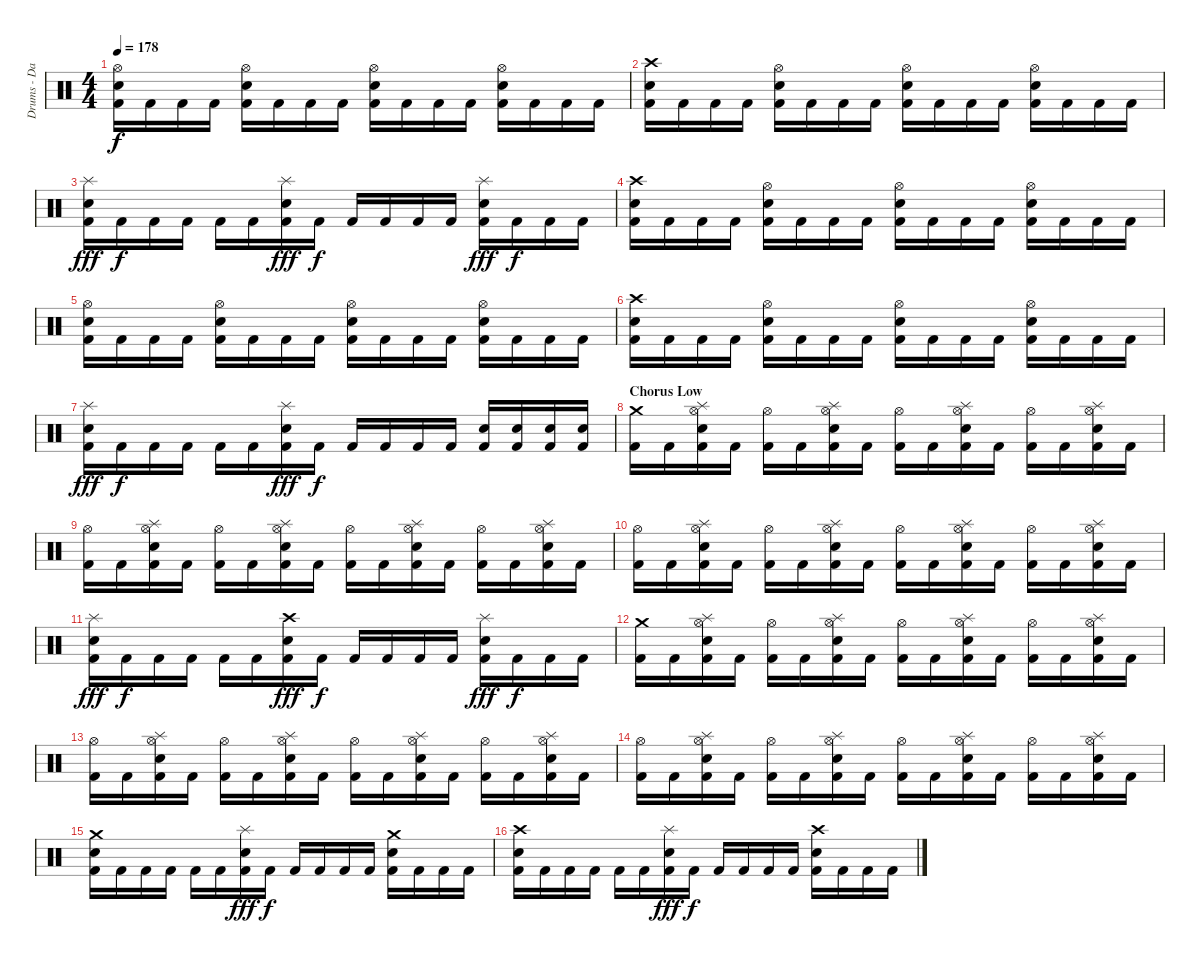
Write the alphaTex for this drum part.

\track ("Drums - Daniel Zimmermann" "Drums - Da") {instrument percussion}
\staff {score}
\articulation defaults
\ts (4 4)
\tempo 178
\clef neutral
\ks c
("Kick (hit) 2" "Electric Snare (hit)" "Hi-Hat (open)").16{dy f} "Kick (hit) 2".16 "Kick (hit) 2".16 "Kick (hit) 2".16 ("Kick (hit) 2" "Electric Snare (hit)" "Hi-Hat (open)").16 "Kick (hit) 2".16 "Kick (hit) 2".16 "Kick (hit) 2".16 ("Kick (hit) 2" "Electric Snare (hit)" "Hi-Hat (open)").16 "Kick (hit) 2".16 "Kick (hit) 2".16 "Kick (hit) 2".16 ("Kick (hit) 2" "Electric Snare (hit)" "Hi-Hat (open)").16 "Kick (hit) 2".16 "Kick (hit) 2".16 "Kick (hit) 2".16 |
("Kick (hit) 2" "Electric Snare (hit)" "Crash high (hit)").16 "Kick (hit) 2".16 "Kick (hit) 2".16 "Kick (hit) 2".16 ("Kick (hit) 2" "Electric Snare (hit)" "Hi-Hat (open)").16 "Kick (hit) 2".16 "Kick (hit) 2".16 "Kick (hit) 2".16 ("Kick (hit) 2" "Electric Snare (hit)" "Hi-Hat (open)").16 "Kick (hit) 2".16 "Kick (hit) 2".16 "Kick (hit) 2".16 ("Kick (hit) 2" "Electric Snare (hit)" "Hi-Hat (open)").16 "Kick (hit) 2".16 "Kick (hit) 2".16 "Kick (hit) 2".16 |
("Kick (hit) 2" "Electric Snare (hit)" "Splash (hit)").16{dy fff} "Kick (hit) 2".16{dy f} "Kick (hit) 2".16 "Kick (hit) 2".16 "Kick (hit) 2".16 "Kick (hit) 2".16 ("Kick (hit) 2" "Electric Snare (hit)" "Splash (hit)").16{dy fff} "Kick (hit) 2".16{dy f} "Kick (hit) 2".16 "Kick (hit) 2".16 "Kick (hit) 2".16 "Kick (hit) 2".16 ("Kick (hit) 2" "Electric Snare (hit)" "Splash (hit)").16{dy fff} "Kick (hit) 2".16{dy f} "Kick (hit) 2".16 "Kick (hit) 2".16 |
("Kick (hit) 2" "Electric Snare (hit)" "Crash high (hit)").16 "Kick (hit) 2".16 "Kick (hit) 2".16 "Kick (hit) 2".16 ("Kick (hit) 2" "Electric Snare (hit)" "Hi-Hat (open)").16 "Kick (hit) 2".16 "Kick (hit) 2".16 "Kick (hit) 2".16 ("Kick (hit) 2" "Electric Snare (hit)" "Hi-Hat (open)").16 "Kick (hit) 2".16 "Kick (hit) 2".16 "Kick (hit) 2".16 ("Kick (hit) 2" "Electric Snare (hit)" "Hi-Hat (open)").16 "Kick (hit) 2".16 "Kick (hit) 2".16 "Kick (hit) 2".16 |
("Kick (hit) 2" "Electric Snare (hit)" "Hi-Hat (open)").16 "Kick (hit) 2".16 "Kick (hit) 2".16 "Kick (hit) 2".16 ("Kick (hit) 2" "Electric Snare (hit)" "Hi-Hat (open)").16 "Kick (hit) 2".16 "Kick (hit) 2".16 "Kick (hit) 2".16 ("Kick (hit) 2" "Electric Snare (hit)" "Hi-Hat (open)").16 "Kick (hit) 2".16 "Kick (hit) 2".16 "Kick (hit) 2".16 ("Kick (hit) 2" "Electric Snare (hit)" "Hi-Hat (open)").16 "Kick (hit) 2".16 "Kick (hit) 2".16 "Kick (hit) 2".16 |
("Kick (hit) 2" "Electric Snare (hit)" "Crash high (hit)").16 "Kick (hit) 2".16 "Kick (hit) 2".16 "Kick (hit) 2".16 ("Kick (hit) 2" "Electric Snare (hit)" "Hi-Hat (open)").16 "Kick (hit) 2".16 "Kick (hit) 2".16 "Kick (hit) 2".16 ("Kick (hit) 2" "Electric Snare (hit)" "Hi-Hat (open)").16 "Kick (hit) 2".16 "Kick (hit) 2".16 "Kick (hit) 2".16 ("Kick (hit) 2" "Electric Snare (hit)" "Hi-Hat (open)").16 "Kick (hit) 2".16 "Kick (hit) 2".16 "Kick (hit) 2".16 |
("Kick (hit) 2" "Electric Snare (hit)" "Splash (hit)").16{dy fff} "Kick (hit) 2".16{dy f} "Kick (hit) 2".16 "Kick (hit) 2".16 "Kick (hit) 2".16 "Kick (hit) 2".16 ("Kick (hit) 2" "Electric Snare (hit)" "Splash (hit)").16{dy fff} "Kick (hit) 2".16{dy f} "Kick (hit) 2".16 "Kick (hit) 2".16 "Kick (hit) 2".16 "Kick (hit) 2".16 ("Kick (hit) 2" "Electric Snare (hit)").16 ("Kick (hit) 2" "Electric Snare (hit)").16 ("Kick (hit) 2" "Electric Snare (hit)").16 ("Kick (hit) 2" "Electric Snare (hit)").16 |
\section ("" "Chorus Low")
("Kick (hit) 2" "Crash medium (hit)").16 "Kick (hit) 2".16 ("Kick (hit) 2" "Electric Snare (hit)" "Hi-Hat (open)" "Splash (hit)").16 "Kick (hit) 2".16 ("Kick (hit) 2" "Hi-Hat (open)").16 "Kick (hit) 2".16 ("Kick (hit) 2" "Electric Snare (hit)" "Hi-Hat (open)" "Splash (hit)").16 "Kick (hit) 2".16 ("Kick (hit) 2" "Hi-Hat (open)").16 "Kick (hit) 2".16 ("Kick (hit) 2" "Electric Snare (hit)" "Hi-Hat (open)" "Splash (hit)").16 "Kick (hit) 2".16 ("Kick (hit) 2" "Hi-Hat (open)").16 "Kick (hit) 2".16 ("Kick (hit) 2" "Electric Snare (hit)" "Hi-Hat (open)" "Splash (hit)").16 "Kick (hit) 2".16 |
("Kick (hit) 2" "Hi-Hat (open)").16 "Kick (hit) 2".16 ("Kick (hit) 2" "Electric Snare (hit)" "Hi-Hat (open)" "Splash (hit)").16 "Kick (hit) 2".16 ("Kick (hit) 2" "Hi-Hat (open)").16 "Kick (hit) 2".16 ("Kick (hit) 2" "Electric Snare (hit)" "Hi-Hat (open)" "Splash (hit)").16 "Kick (hit) 2".16 ("Kick (hit) 2" "Hi-Hat (open)").16 "Kick (hit) 2".16 ("Kick (hit) 2" "Electric Snare (hit)" "Hi-Hat (open)" "Splash (hit)").16 "Kick (hit) 2".16 ("Kick (hit) 2" "Hi-Hat (open)").16 "Kick (hit) 2".16 ("Kick (hit) 2" "Electric Snare (hit)" "Hi-Hat (open)" "Splash (hit)").16 "Kick (hit) 2".16 |
("Kick (hit) 2" "Hi-Hat (open)").16 "Kick (hit) 2".16 ("Kick (hit) 2" "Electric Snare (hit)" "Hi-Hat (open)" "Splash (hit)").16 "Kick (hit) 2".16 ("Kick (hit) 2" "Hi-Hat (open)").16 "Kick (hit) 2".16 ("Kick (hit) 2" "Electric Snare (hit)" "Hi-Hat (open)" "Splash (hit)").16 "Kick (hit) 2".16 ("Kick (hit) 2" "Hi-Hat (open)").16 "Kick (hit) 2".16 ("Kick (hit) 2" "Electric Snare (hit)" "Hi-Hat (open)" "Splash (hit)").16 "Kick (hit) 2".16 ("Kick (hit) 2" "Hi-Hat (open)").16 "Kick (hit) 2".16 ("Kick (hit) 2" "Electric Snare (hit)" "Hi-Hat (open)" "Splash (hit)").16 "Kick (hit) 2".16 |
("Kick (hit) 2" "Electric Snare (hit)" "Splash (hit)").16{dy fff} "Kick (hit) 2".16{dy f} "Kick (hit) 2".16 "Kick (hit) 2".16 "Kick (hit) 2".16 "Kick (hit) 2".16 ("Kick (hit) 2" "Electric Snare (hit)" "Crash high (hit)").16{dy fff} "Kick (hit) 2".16{dy f} "Kick (hit) 2".16 "Kick (hit) 2".16 "Kick (hit) 2".16 "Kick (hit) 2".16 ("Kick (hit) 2" "Electric Snare (hit)" "Splash (hit)").16{dy fff} "Kick (hit) 2".16{dy f} "Kick (hit) 2".16 "Kick (hit) 2".16 |
("Kick (hit) 2" "Crash medium (hit)").16 "Kick (hit) 2".16 ("Kick (hit) 2" "Electric Snare (hit)" "Hi-Hat (open)" "Splash (hit)").16 "Kick (hit) 2".16 ("Kick (hit) 2" "Hi-Hat (open)").16 "Kick (hit) 2".16 ("Kick (hit) 2" "Electric Snare (hit)" "Hi-Hat (open)" "Splash (hit)").16 "Kick (hit) 2".16 ("Kick (hit) 2" "Hi-Hat (open)").16 "Kick (hit) 2".16 ("Kick (hit) 2" "Electric Snare (hit)" "Hi-Hat (open)" "Splash (hit)").16 "Kick (hit) 2".16 ("Kick (hit) 2" "Hi-Hat (open)").16 "Kick (hit) 2".16 ("Kick (hit) 2" "Electric Snare (hit)" "Hi-Hat (open)" "Splash (hit)").16 "Kick (hit) 2".16 |
("Kick (hit) 2" "Hi-Hat (open)").16 "Kick (hit) 2".16 ("Kick (hit) 2" "Electric Snare (hit)" "Hi-Hat (open)" "Splash (hit)").16 "Kick (hit) 2".16 ("Kick (hit) 2" "Hi-Hat (open)").16 "Kick (hit) 2".16 ("Kick (hit) 2" "Electric Snare (hit)" "Hi-Hat (open)" "Splash (hit)").16 "Kick (hit) 2".16 ("Kick (hit) 2" "Hi-Hat (open)").16 "Kick (hit) 2".16 ("Kick (hit) 2" "Electric Snare (hit)" "Hi-Hat (open)" "Splash (hit)").16 "Kick (hit) 2".16 ("Kick (hit) 2" "Hi-Hat (open)").16 "Kick (hit) 2".16 ("Kick (hit) 2" "Electric Snare (hit)" "Hi-Hat (open)" "Splash (hit)").16 "Kick (hit) 2".16 |
("Kick (hit) 2" "Hi-Hat (open)").16 "Kick (hit) 2".16 ("Kick (hit) 2" "Electric Snare (hit)" "Hi-Hat (open)" "Splash (hit)").16 "Kick (hit) 2".16 ("Kick (hit) 2" "Hi-Hat (open)").16 "Kick (hit) 2".16 ("Kick (hit) 2" "Electric Snare (hit)" "Hi-Hat (open)" "Splash (hit)").16 "Kick (hit) 2".16 ("Kick (hit) 2" "Hi-Hat (open)").16 "Kick (hit) 2".16 ("Kick (hit) 2" "Electric Snare (hit)" "Hi-Hat (open)" "Splash (hit)").16 "Kick (hit) 2".16 ("Kick (hit) 2" "Hi-Hat (open)").16 "Kick (hit) 2".16 ("Kick (hit) 2" "Electric Snare (hit)" "Hi-Hat (open)" "Splash (hit)").16 "Kick (hit) 2".16 |
("Kick (hit) 2" "Electric Snare (hit)" "Crash medium (hit)").16 "Kick (hit) 2".16 "Kick (hit) 2".16 "Kick (hit) 2".16 "Kick (hit) 2".16 "Kick (hit) 2".16 ("Kick (hit) 2" "Electric Snare (hit)" "Splash (hit)").16{dy fff} "Kick (hit) 2".16{dy f} "Kick (hit) 2".16 "Kick (hit) 2".16 "Kick (hit) 2".16 "Kick (hit) 2".16 ("Kick (hit) 2" "Electric Snare (hit)" "Crash medium (hit)").16 "Kick (hit) 2".16 "Kick (hit) 2".16 "Kick (hit) 2".16 |
("Kick (hit) 2" "Electric Snare (hit)" "Crash high (hit)").16 "Kick (hit) 2".16 "Kick (hit) 2".16 "Kick (hit) 2".16 "Kick (hit) 2".16 "Kick (hit) 2".16 ("Kick (hit) 2" "Electric Snare (hit)" "Splash (hit)").16{dy fff} "Kick (hit) 2".16{dy f} "Kick (hit) 2".16 "Kick (hit) 2".16 "Kick (hit) 2".16 "Kick (hit) 2".16 ("Kick (hit) 2" "Electric Snare (hit)" "Crash high (hit)").16 "Kick (hit) 2".16 "Kick (hit) 2".16 "Kick (hit) 2".16
